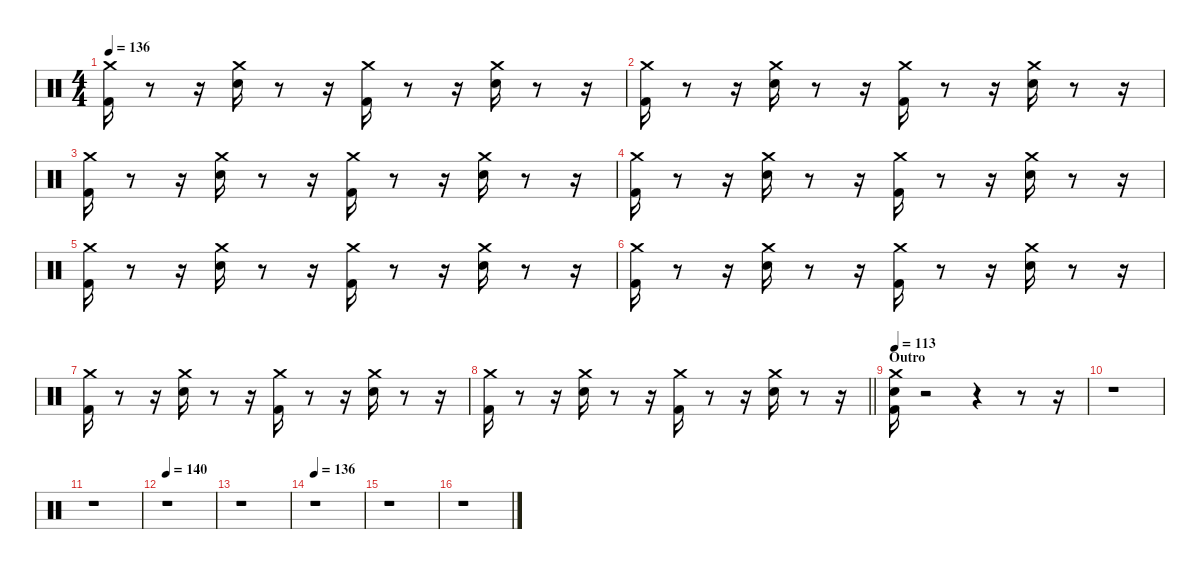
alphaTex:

\defaultSystemsLayout 4
\hideDynamics
\bracketExtendMode nobrackets
\singleTrackTrackNamePolicy hidden
\multiTrackTrackNamePolicy hidden
\firstSystemTrackNameMode fullname
\firstSystemTrackNameOrientation horizontal
\otherSystemsTrackNameOrientation horizontal
\track ("John Bonham" "drm.") {instrument percussion}
\staff {score}
\articulation defaults
\ts (4 4)
\tempo 136
\clef neutral
\ks aminor
("Kick (hit) 2" "Crash medium (hit)").16{dy f beam Down} r.8{beam Down} r.16{beam Down} ("Snare (hit) 2" "Crash medium (hit)").16{beam Down} r.8{beam Down} r.16{beam Down} ("Kick (hit) 2" "Crash medium (hit)").16{beam Down} r.8{beam Down} r.16{beam Down} ("Snare (hit) 2" "Crash medium (hit)").16{beam Down} r.8{beam Down} r.16{beam Down} |
("Kick (hit) 2" "Crash medium (hit)").16{beam Down} r.8{beam Down} r.16{beam Down} ("Snare (hit) 2" "Crash medium (hit)").16{beam Down} r.8{beam Down} r.16{beam Down} ("Kick (hit) 2" "Crash medium (hit)").16{beam Down} r.8{beam Down} r.16{beam Down} ("Snare (hit) 2" "Crash medium (hit)").16{beam Down} r.8{beam Down} r.16{beam Down} |
("Kick (hit) 2" "Crash medium (hit)").16{beam Down} r.8{beam Down} r.16{beam Down} ("Snare (hit) 2" "Crash medium (hit)").16{beam Down} r.8{beam Down} r.16{beam Down} ("Kick (hit) 2" "Crash medium (hit)").16{beam Down} r.8{beam Down} r.16{beam Down} ("Snare (hit) 2" "Crash medium (hit)").16{beam Down} r.8{beam Down} r.16{beam Down} |
("Kick (hit) 2" "Crash medium (hit)").16{beam Down} r.8{beam Down} r.16{beam Down} ("Snare (hit) 2" "Crash medium (hit)").16{beam Down} r.8{beam Down} r.16{beam Down} ("Kick (hit) 2" "Crash medium (hit)").16{beam Down} r.8{beam Down} r.16{beam Down} ("Snare (hit) 2" "Crash medium (hit)").16{beam Down} r.8{beam Down} r.16{beam Down} |
("Kick (hit) 2" "Crash medium (hit)").16{beam Down} r.8{beam Down} r.16{beam Down} ("Snare (hit) 2" "Crash medium (hit)").16{beam Down} r.8{beam Down} r.16{beam Down} ("Kick (hit) 2" "Crash medium (hit)").16{beam Down} r.8{beam Down} r.16{beam Down} ("Snare (hit) 2" "Crash medium (hit)").16{beam Down} r.8{beam Down} r.16{beam Down} |
("Kick (hit) 2" "Crash medium (hit)").16{beam Down} r.8{beam Down} r.16{beam Down} ("Snare (hit) 2" "Crash medium (hit)").16{beam Down} r.8{beam Down} r.16{beam Down} ("Kick (hit) 2" "Crash medium (hit)").16{beam Down} r.8{beam Down} r.16{beam Down} ("Snare (hit) 2" "Crash medium (hit)").16{beam Down} r.8{beam Down} r.16{beam Down} |
("Kick (hit) 2" "Crash medium (hit)").16{beam Down} r.8{beam Down} r.16{beam Down} ("Snare (hit) 2" "Crash medium (hit)").16{beam Down} r.8{beam Down} r.16{beam Down} ("Kick (hit) 2" "Crash medium (hit)").16{beam Down} r.8{beam Down} r.16{beam Down} ("Snare (hit) 2" "Crash medium (hit)").16{beam Down} r.8{beam Down} r.16{beam Down} |
\barLineRight lightlight
("Kick (hit) 2" "Crash medium (hit)").16{beam Down} r.8{beam Down} r.16{beam Down} ("Snare (hit) 2" "Crash medium (hit)").16{beam Down} r.8{beam Down} r.16{beam Down} ("Kick (hit) 2" "Crash medium (hit)").16{beam Down} r.8{beam Down} r.16{beam Down} ("Snare (hit) 2" "Crash medium (hit)").16{beam Down} r.8{beam Down} r.16{beam Down} |
\section ("" "Outro")
\tempo 113
("Kick (hit) 2" "Snare (hit) 2" "Crash medium (hit)").16{beam Down} r.2{beam Down} r.4{beam Down} r.8{beam Down} r.16{beam Down} |
r.1{beam Down} |
r.1{beam Down} |
\tempo 140
r.1{beam Down} |
r.1{beam Down} |
\tempo 136
r.1{beam Down} |
r.1{beam Down} |
r.1{beam Down}
